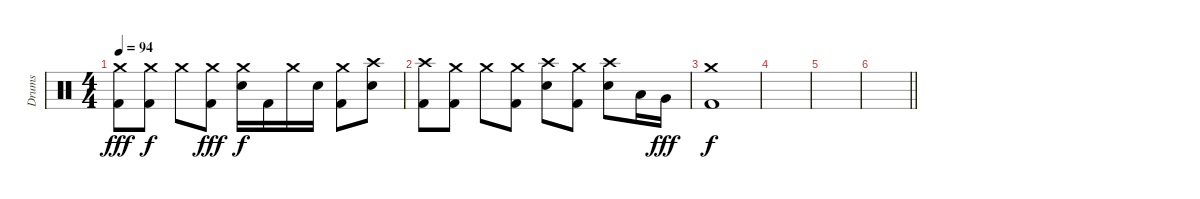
\track ("Drums" "Drums") {instrument percussion}
\staff {score}
\articulation defaults
\ts (4 4)
\tempo 94
\clef neutral
\ks c
("Crash medium (hit)" "Kick (hit) 2").8{dy fff} ("Crash medium (hit)" "Kick (hit) 2").8{dy f} "Crash medium (hit)".8 ("Crash medium (hit)" "Kick (hit) 2").8{dy fff} ("Crash medium (hit)" "Electric Snare (hit)").16{dy f} "Kick (hit) 2".16 "Crash medium (hit)".16 "Electric Snare (hit)".16 ("Crash medium (hit)" "Kick (hit) 2").8 ("Crash high (hit)" "Electric Snare (hit)").8 |
("Crash high (hit)" "Kick (hit) 2").8 ("Crash medium (hit)" "Kick (hit) 2").8 "Crash medium (hit)".8 ("Crash medium (hit)" "Kick (hit) 2").8 ("Crash high (hit)" "Electric Snare (hit)").8 ("Crash medium (hit)" "Kick (hit) 2").8 ("Crash high (hit)" "Electric Snare (hit)").8 "Low Tom (hit)".16 "Very Low Tom (hit)".16{dy fff} |
("Crash medium (hit)" "Kick (hit) 2").1{dy f} |
|
|
\barLineRight lightlight
